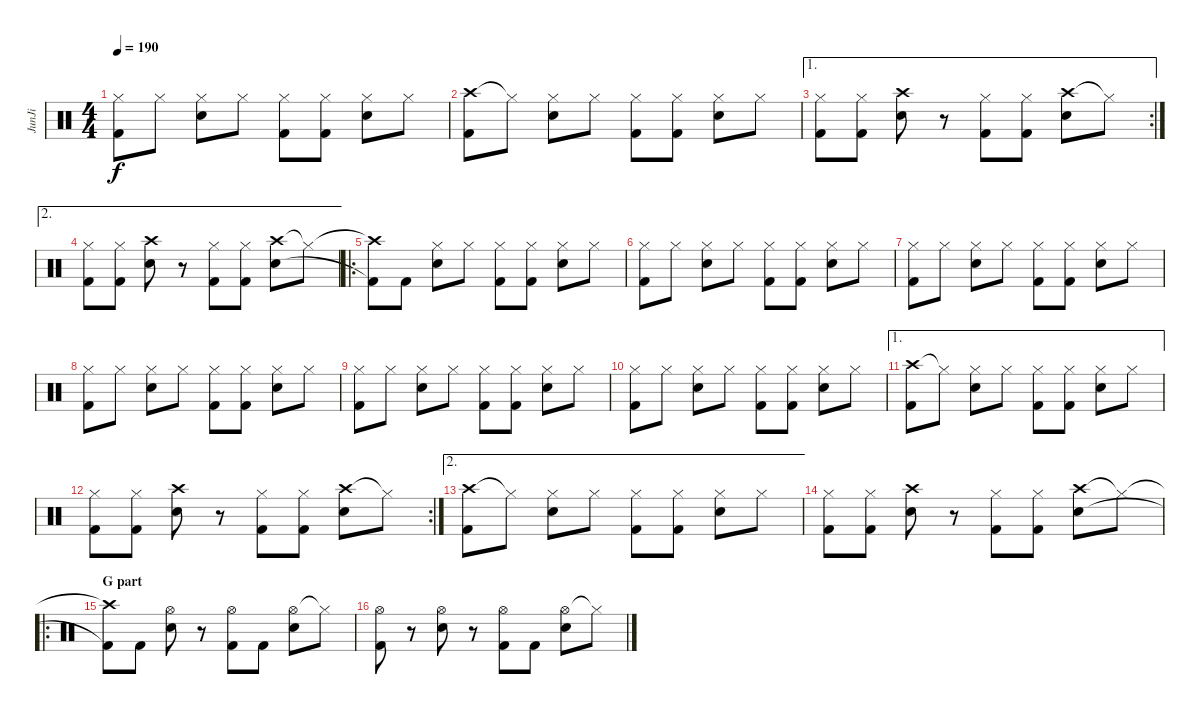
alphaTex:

\track ("JunJi" "JunJi") {instrument percussion}
\staff {score}
\articulation defaults
\ts (4 4)
\tempo 190
\clef neutral
\ks c
("Hi-Hat (closed)" "Kick (hit) 2").8{dy f} "Hi-Hat (closed)".8 ("Hi-Hat (closed)" "Snare (hit) 2").8 "Hi-Hat (closed)".8 ("Hi-Hat (closed)" "Kick (hit) 2").8 ("Hi-Hat (closed)" "Kick (hit) 2").8 ("Hi-Hat (closed)" "Snare (hit) 2").8 "Hi-Hat (closed)".8 |
("Crash high (hit)" "Kick (hit) 2").8 "Hi-Hat (closed)"{t}.8 ("Hi-Hat (closed)" "Snare (hit) 2").8 "Hi-Hat (closed)".8 ("Hi-Hat (closed)" "Kick (hit) 2").8 ("Hi-Hat (closed)" "Kick (hit) 2").8 ("Hi-Hat (closed)" "Snare (hit) 2").8 "Hi-Hat (closed)".8 |
\ae 1
\rc 2
("Hi-Hat (closed)" "Kick (hit) 2").8 ("Hi-Hat (closed)" "Kick (hit) 2").8 ("Crash high (hit)" "Snare (hit) 2").8 r.8 ("Hi-Hat (closed)" "Kick (hit) 2").8 ("Hi-Hat (closed)" "Kick (hit) 2").8 ("Crash high (hit)" "Snare (hit) 2").8 "Hi-Hat (closed)"{t}.8 |
\ae 2
("Hi-Hat (closed)" "Kick (hit) 2").8 ("Hi-Hat (closed)" "Kick (hit) 2").8 ("Crash high (hit)" "Snare (hit) 2").8 r.8 ("Hi-Hat (closed)" "Kick (hit) 2").8 ("Hi-Hat (closed)" "Kick (hit) 2").8 ("Crash high (hit)" "Snare (hit) 2").8 "Hi-Hat (closed)"{t}.8 |
\ro
("Crash high (hit)"{t} "Kick (hit) 2"{t}).8 "Kick (hit) 2".8 ("Hi-Hat (closed)" "Snare (hit) 2").8 "Hi-Hat (closed)".8 ("Hi-Hat (closed)" "Kick (hit) 2").8 ("Hi-Hat (closed)" "Kick (hit) 2").8 ("Hi-Hat (closed)" "Snare (hit) 2").8 "Hi-Hat (closed)".8 |
("Hi-Hat (closed)" "Kick (hit) 2").8 "Hi-Hat (closed)".8 ("Hi-Hat (closed)" "Snare (hit) 2").8 "Hi-Hat (closed)".8 ("Hi-Hat (closed)" "Kick (hit) 2").8 ("Hi-Hat (closed)" "Kick (hit) 2").8 ("Hi-Hat (closed)" "Snare (hit) 2").8 "Hi-Hat (closed)".8 |
("Hi-Hat (closed)" "Kick (hit) 2").8 "Hi-Hat (closed)".8 ("Hi-Hat (closed)" "Snare (hit) 2").8 "Hi-Hat (closed)".8 ("Hi-Hat (closed)" "Kick (hit) 2").8 ("Hi-Hat (closed)" "Kick (hit) 2").8 ("Hi-Hat (closed)" "Snare (hit) 2").8 "Hi-Hat (closed)".8 |
("Hi-Hat (closed)" "Kick (hit) 2").8 "Hi-Hat (closed)".8 ("Hi-Hat (closed)" "Snare (hit) 2").8 "Hi-Hat (closed)".8 ("Hi-Hat (closed)" "Kick (hit) 2").8 ("Hi-Hat (closed)" "Kick (hit) 2").8 ("Hi-Hat (closed)" "Snare (hit) 2").8 "Hi-Hat (closed)".8 |
("Hi-Hat (closed)" "Kick (hit) 2").8 "Hi-Hat (closed)".8 ("Hi-Hat (closed)" "Snare (hit) 2").8 "Hi-Hat (closed)".8 ("Hi-Hat (closed)" "Kick (hit) 2").8 ("Hi-Hat (closed)" "Kick (hit) 2").8 ("Hi-Hat (closed)" "Snare (hit) 2").8 "Hi-Hat (closed)".8 |
("Hi-Hat (closed)" "Kick (hit) 2").8 "Hi-Hat (closed)".8 ("Hi-Hat (closed)" "Snare (hit) 2").8 "Hi-Hat (closed)".8 ("Hi-Hat (closed)" "Kick (hit) 2").8 ("Hi-Hat (closed)" "Kick (hit) 2").8 ("Hi-Hat (closed)" "Snare (hit) 2").8 "Hi-Hat (closed)".8 |
\ae 1
("Crash high (hit)" "Kick (hit) 2").8 "Hi-Hat (closed)"{t}.8 ("Hi-Hat (closed)" "Snare (hit) 2").8 "Hi-Hat (closed)".8 ("Hi-Hat (closed)" "Kick (hit) 2").8 ("Hi-Hat (closed)" "Kick (hit) 2").8 ("Hi-Hat (closed)" "Snare (hit) 2").8 "Hi-Hat (closed)".8 |
\rc 2
("Hi-Hat (closed)" "Kick (hit) 2").8 ("Hi-Hat (closed)" "Kick (hit) 2").8 ("Crash high (hit)" "Snare (hit) 2").8 r.8 ("Hi-Hat (closed)" "Kick (hit) 2").8 ("Hi-Hat (closed)" "Kick (hit) 2").8 ("Crash high (hit)" "Snare (hit) 2").8 "Hi-Hat (closed)"{t}.8 |
\ae 2
("Crash high (hit)" "Kick (hit) 2").8 "Hi-Hat (closed)"{t}.8 ("Hi-Hat (closed)" "Snare (hit) 2").8 "Hi-Hat (closed)".8 ("Hi-Hat (closed)" "Kick (hit) 2").8 ("Hi-Hat (closed)" "Kick (hit) 2").8 ("Hi-Hat (closed)" "Snare (hit) 2").8 "Hi-Hat (closed)".8 |
("Hi-Hat (closed)" "Kick (hit) 2").8 ("Hi-Hat (closed)" "Kick (hit) 2").8 ("Crash high (hit)" "Snare (hit) 2").8 r.8 ("Hi-Hat (closed)" "Kick (hit) 2").8 ("Hi-Hat (closed)" "Kick (hit) 2").8 ("Crash high (hit)" "Snare (hit) 2").8 "Hi-Hat (closed)"{t}.8 |
\ro
\section ("" "G part")
("Crash high (hit)"{t} "Kick (hit) 2"{t}).8 "Kick (hit) 2".8 ("Hi-Hat (open)" "Snare (hit) 2").8 r.8 ("Hi-Hat (open)" "Kick (hit) 2").8 "Kick (hit) 2".8 ("Hi-Hat (open)" "Snare (hit) 2").8 "Hi-Hat (closed)"{t}.8 |
("Hi-Hat (open)" "Kick (hit) 2").8 r.8 ("Hi-Hat (open)" "Snare (hit) 2").8 r.8 ("Hi-Hat (open)" "Kick (hit) 2").8 "Kick (hit) 2".8 ("Hi-Hat (open)" "Snare (hit) 2").8 "Hi-Hat (closed)"{t}.8
